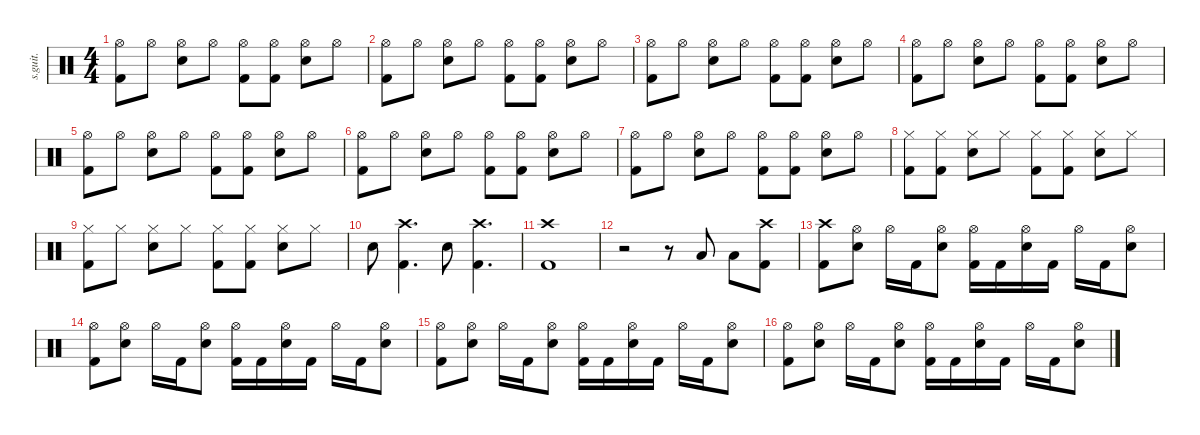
\defaultSystemsLayout 4
\hideDynamics
\bracketExtendMode nobrackets
\track ("" "s.guit.") {instrument percussion}
\staff {score}
\articulation defaults
\ts (4 4)
\tempo (100 hide)
\clef neutral
\ks c
("Hi-Hat (open)" "Kick (hit) 2").8{dy mf} "Hi-Hat (open)".8 ("Hi-Hat (open)" "Snare (hit) 2").8 "Hi-Hat (open)".8 ("Hi-Hat (open)" "Kick (hit) 2").8 ("Hi-Hat (open)" "Kick (hit) 2").8 ("Hi-Hat (open)" "Snare (hit) 2").8 "Hi-Hat (open)".8 |
("Hi-Hat (open)" "Kick (hit) 2").8 "Hi-Hat (open)".8 ("Hi-Hat (open)" "Snare (hit) 2").8 "Hi-Hat (open)".8 ("Hi-Hat (open)" "Kick (hit) 2").8 ("Hi-Hat (open)" "Kick (hit) 2").8 ("Hi-Hat (open)" "Snare (hit) 2").8 "Hi-Hat (open)".8 |
("Hi-Hat (open)" "Kick (hit) 2").8 "Hi-Hat (open)".8 ("Hi-Hat (open)" "Snare (hit) 2").8 "Hi-Hat (open)".8 ("Hi-Hat (open)" "Kick (hit) 2").8 ("Hi-Hat (open)" "Kick (hit) 2").8 ("Hi-Hat (open)" "Snare (hit) 2").8 "Hi-Hat (open)".8 |
("Hi-Hat (open)" "Kick (hit) 2").8 "Hi-Hat (open)".8 ("Hi-Hat (open)" "Snare (hit) 2").8 "Hi-Hat (open)".8 ("Hi-Hat (open)" "Kick (hit) 2").8 ("Hi-Hat (open)" "Kick (hit) 2").8 ("Hi-Hat (open)" "Snare (hit) 2").8 "Hi-Hat (open)".8 |
("Hi-Hat (open)" "Kick (hit) 2").8 "Hi-Hat (open)".8 ("Hi-Hat (open)" "Snare (hit) 2").8 "Hi-Hat (open)".8 ("Hi-Hat (open)" "Kick (hit) 2").8 ("Hi-Hat (open)" "Kick (hit) 2").8 ("Hi-Hat (open)" "Snare (hit) 2").8 "Hi-Hat (open)".8 |
("Hi-Hat (open)" "Kick (hit) 2").8 "Hi-Hat (open)".8 ("Hi-Hat (open)" "Snare (hit) 2").8 "Hi-Hat (open)".8 ("Hi-Hat (open)" "Kick (hit) 2").8 ("Hi-Hat (open)" "Kick (hit) 2").8 ("Hi-Hat (open)" "Snare (hit) 2").8 "Hi-Hat (open)".8 |
("Hi-Hat (open)" "Kick (hit) 2").8 "Hi-Hat (open)".8 ("Hi-Hat (open)" "Snare (hit) 2").8 "Hi-Hat (open)".8 ("Hi-Hat (open)" "Kick (hit) 2").8 ("Hi-Hat (open)" "Kick (hit) 2").8 ("Hi-Hat (open)" "Snare (hit) 2").8 "Hi-Hat (open)".8 |
("Hi-Hat (closed)" "Kick (hit) 2").8 ("Hi-Hat (closed)" "Kick (hit) 2").8 ("Hi-Hat (closed)" "Snare (hit) 2").8 "Hi-Hat (closed)".8 ("Hi-Hat (closed)" "Kick (hit) 2").8 ("Hi-Hat (closed)" "Kick (hit) 2").8 ("Hi-Hat (closed)" "Snare (hit) 2").8 "Hi-Hat (closed)".8 |
("Hi-Hat (closed)" "Kick (hit) 2").8 "Hi-Hat (closed)".8 ("Hi-Hat (closed)" "Snare (hit) 2").8 "Hi-Hat (closed)".8 ("Hi-Hat (closed)" "Kick (hit) 2").8 ("Hi-Hat (closed)" "Kick (hit) 2").8 ("Hi-Hat (closed)" "Snare (hit) 2").8 "Hi-Hat (closed)".8 |
"Snare (hit) 2".8 ("Crash high (hit)" "Kick (hit) 2").4{d} "Snare (hit) 2".8 ("Crash high (hit)" "Kick (hit) 2").4{d} |
\tempo (150 hide)
("Crash high (hit)" "Kick (hit) 2").1 |
r.2 r.8 "Low Tom (hit)".8 "Low Tom (hit)".8 ("Crash high (hit)" "Kick (hit) 2").8 |
("Crash high (hit)" "Kick (hit) 2").8 ("Hi-Hat (open)" "Snare (hit) 2").8 "Hi-Hat (open)".16 "Kick (hit) 2".16 ("Hi-Hat (open)" "Snare (hit) 2").8 ("Hi-Hat (open)" "Kick (hit) 2").16 "Kick (hit) 2".16 ("Hi-Hat (open)" "Snare (hit) 2").16 "Kick (hit) 2".16 "Hi-Hat (open)".16 "Kick (hit) 2".16 ("Hi-Hat (open)" "Snare (hit) 2").8 |
("Hi-Hat (open)" "Kick (hit) 2").8 ("Hi-Hat (open)" "Snare (hit) 2").8 "Hi-Hat (open)".16 "Kick (hit) 2".16 ("Hi-Hat (open)" "Snare (hit) 2").8 ("Hi-Hat (open)" "Kick (hit) 2").16 "Kick (hit) 2".16 ("Hi-Hat (open)" "Snare (hit) 2").16 "Kick (hit) 2".16 "Hi-Hat (open)".16 "Kick (hit) 2".16 ("Hi-Hat (open)" "Snare (hit) 2").8 |
("Hi-Hat (open)" "Kick (hit) 2").8 ("Hi-Hat (open)" "Snare (hit) 2").8 "Hi-Hat (open)".16 "Kick (hit) 2".16 ("Hi-Hat (open)" "Snare (hit) 2").8 ("Hi-Hat (open)" "Kick (hit) 2").16 "Kick (hit) 2".16 ("Hi-Hat (open)" "Snare (hit) 2").16 "Kick (hit) 2".16 "Hi-Hat (open)".16 "Kick (hit) 2".16 ("Hi-Hat (open)" "Snare (hit) 2").8 |
("Hi-Hat (open)" "Kick (hit) 2").8 ("Hi-Hat (open)" "Snare (hit) 2").8 "Hi-Hat (open)".16 "Kick (hit) 2".16 ("Hi-Hat (open)" "Snare (hit) 2").8 ("Hi-Hat (open)" "Kick (hit) 2").16 "Kick (hit) 2".16 ("Hi-Hat (open)" "Snare (hit) 2").16 "Kick (hit) 2".16 "Hi-Hat (open)".16 "Kick (hit) 2".16 ("Hi-Hat (open)" "Snare (hit) 2").8
